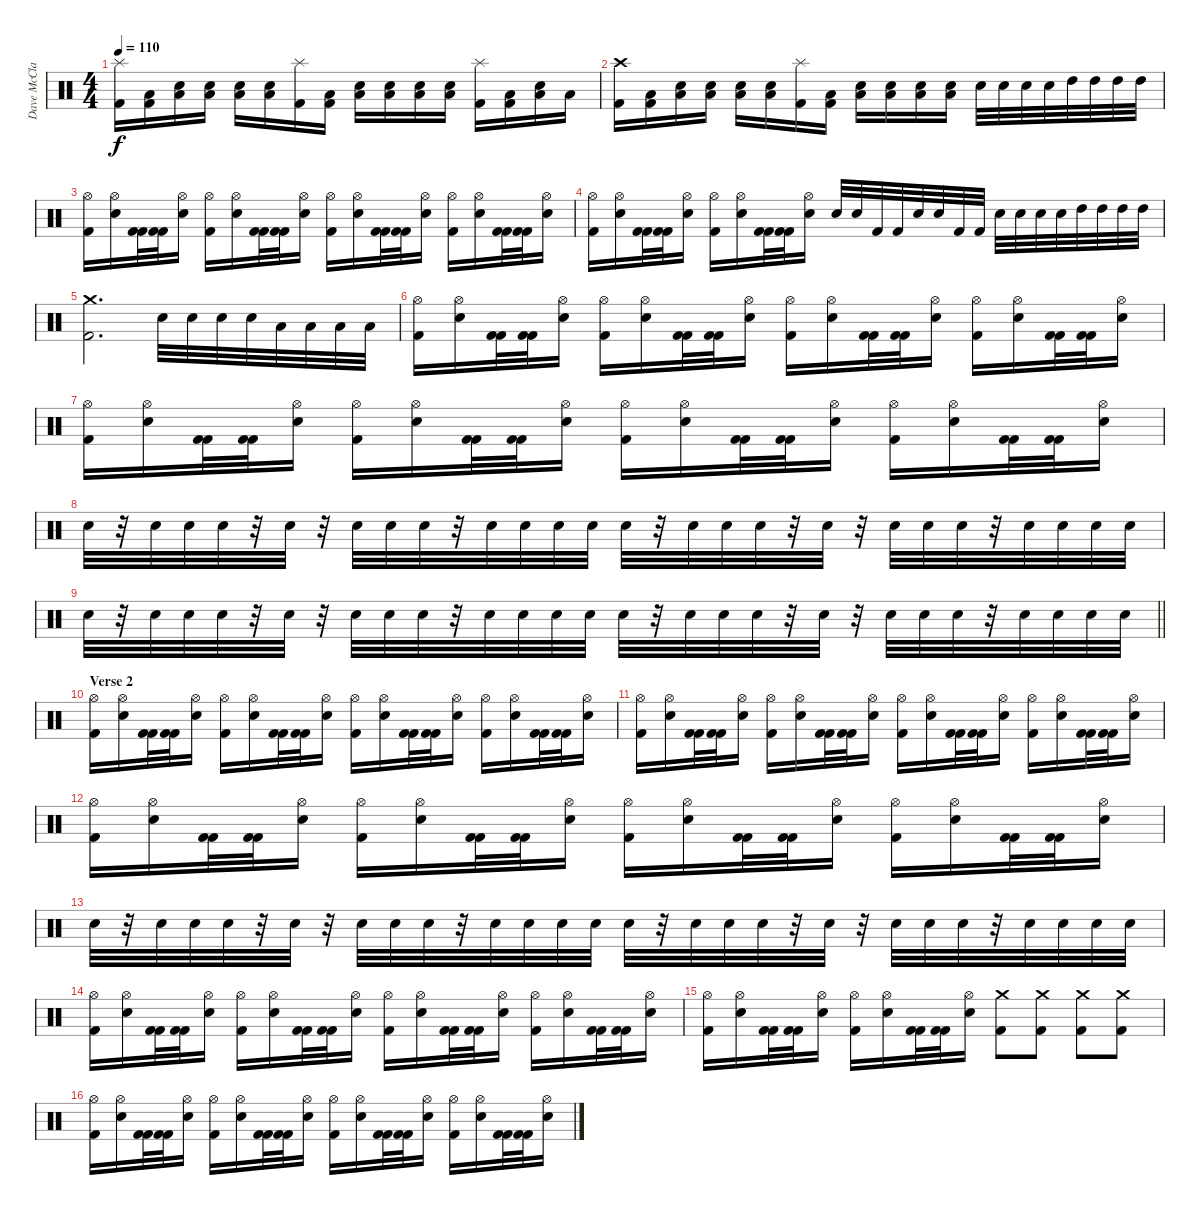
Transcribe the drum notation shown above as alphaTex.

\track ("Dave McClain" "Dave McCla") {instrument percussion}
\staff {score}
\articulation defaults
\ts (4 4)
\tempo 110
\clef neutral
\ks c
("Splash (hit)" "Kick (hit) 2").16{dy f} ("Kick (hit) 2" "Low Tom (hit)").16 ("Electric Snare (hit)" "Low Tom (hit)").16 ("Electric Snare (hit)" "Low Tom (hit)").16 ("Electric Snare (hit)" "Low Tom (hit)").16 ("Low Tom (hit)" "Electric Snare (hit)").16 ("Splash (hit)" "Kick (hit) 2").16 ("Kick (hit) 2" "Low Tom (hit)").16 ("Electric Snare (hit)" "Low Tom (hit)").16 ("Electric Snare (hit)" "Low Tom (hit)").16 ("Electric Snare (hit)" "Low Tom (hit)").16 ("Low Tom (hit)" "Electric Snare (hit)").16 ("Kick (hit) 2" "Splash (hit)").16 ("Low Tom (hit)" "Kick (hit) 2").16 ("Low Tom (hit)" "Electric Snare (hit)").16 "Low Tom (hit)".16 |
("Crash high (hit)" "Kick (hit) 2").16 ("Kick (hit) 2" "Low Tom (hit)").16 ("Electric Snare (hit)" "Low Tom (hit)").16 ("Electric Snare (hit)" "Low Tom (hit)").16 ("Electric Snare (hit)" "Low Tom (hit)").16 ("Low Tom (hit)" "Electric Snare (hit)").16 ("Splash (hit)" "Kick (hit) 2").16 ("Kick (hit) 2" "Low Tom (hit)").16 ("Electric Snare (hit)" "Low Tom (hit)").16 ("Electric Snare (hit)" "Low Tom (hit)").16 ("Electric Snare (hit)" "Low Tom (hit)").16 ("Low Tom (hit)" "Electric Snare (hit)").16 "Electric Snare (hit)".32 "Electric Snare (hit)".32 "Electric Snare (hit)".32 "Electric Snare (hit)".32 "High Tom (hit)".32 "High Tom (hit)".32 "High Tom (hit)".32 "High Tom (hit)".32 |
("Kick (hit) 2" "Hi-Hat (open)").16 ("Electric Snare (hit)" "Hi-Hat (open)").16 ("Kick (hit) 2" "Kick (hit) 2").32 ("Kick (hit) 2" "Kick (hit) 2").32 ("Hi-Hat (open)" "Electric Snare (hit)").16 ("Kick (hit) 2" "Hi-Hat (open)").16 ("Hi-Hat (open)" "Electric Snare (hit)").16 ("Kick (hit) 2" "Kick (hit) 2").32 ("Kick (hit) 2" "Kick (hit) 2").32 ("Electric Snare (hit)" "Hi-Hat (open)").16 ("Kick (hit) 2" "Hi-Hat (open)").16 ("Electric Snare (hit)" "Hi-Hat (open)").16 ("Kick (hit) 2" "Kick (hit) 2").32 ("Kick (hit) 2" "Kick (hit) 2").32 ("Hi-Hat (open)" "Electric Snare (hit)").16 ("Kick (hit) 2" "Hi-Hat (open)").16 ("Hi-Hat (open)" "Electric Snare (hit)").16 ("Kick (hit) 2" "Kick (hit) 2").32 ("Kick (hit) 2" "Kick (hit) 2").32 ("Electric Snare (hit)" "Hi-Hat (open)").16 |
("Kick (hit) 2" "Hi-Hat (open)").16 ("Electric Snare (hit)" "Hi-Hat (open)").16 ("Kick (hit) 2" "Kick (hit) 2").32 ("Kick (hit) 2" "Kick (hit) 2").32 ("Hi-Hat (open)" "Electric Snare (hit)").16 ("Kick (hit) 2" "Hi-Hat (open)").16 ("Hi-Hat (open)" "Electric Snare (hit)").16 ("Kick (hit) 2" "Kick (hit) 2").32 ("Kick (hit) 2" "Kick (hit) 2").32 ("Electric Snare (hit)" "Hi-Hat (open)").16 "Electric Snare (hit)".32 "Electric Snare (hit)".32 "Kick (hit) 2".32 "Kick (hit) 2".32 "Electric Snare (hit)".32 "Electric Snare (hit)".32 "Kick (hit) 2".32 "Kick (hit) 2".32 "Electric Snare (hit)".32 "Electric Snare (hit)".32 "Electric Snare (hit)".32 "Electric Snare (hit)".32 "High Tom (hit)".32 "High Tom (hit)".32 "High Tom (hit)".32 "High Tom (hit)".32 |
("Kick (hit) 2" "Crash medium (hit)").2{d} "Electric Snare (hit)".32 "Electric Snare (hit)".32 "Electric Snare (hit)".32 "Electric Snare (hit)".32 "Low Tom (hit)".32 "Low Tom (hit)".32 "Low Tom (hit)".32 "Low Tom (hit)".32 |
("Kick (hit) 2" "Hi-Hat (open)").16 ("Electric Snare (hit)" "Hi-Hat (open)").16 ("Kick (hit) 2" "Kick (hit) 2").32 ("Kick (hit) 2" "Kick (hit) 2").32 ("Hi-Hat (open)" "Electric Snare (hit)").16 ("Kick (hit) 2" "Hi-Hat (open)").16 ("Hi-Hat (open)" "Electric Snare (hit)").16 ("Kick (hit) 2" "Kick (hit) 2").32 ("Kick (hit) 2" "Kick (hit) 2").32 ("Electric Snare (hit)" "Hi-Hat (open)").16 ("Kick (hit) 2" "Hi-Hat (open)").16 ("Electric Snare (hit)" "Hi-Hat (open)").16 ("Kick (hit) 2" "Kick (hit) 2").32 ("Kick (hit) 2" "Kick (hit) 2").32 ("Hi-Hat (open)" "Electric Snare (hit)").16 ("Kick (hit) 2" "Hi-Hat (open)").16 ("Hi-Hat (open)" "Electric Snare (hit)").16 ("Kick (hit) 2" "Kick (hit) 2").32 ("Kick (hit) 2" "Kick (hit) 2").32 ("Electric Snare (hit)" "Hi-Hat (open)").16 |
("Kick (hit) 2" "Hi-Hat (open)").16 ("Electric Snare (hit)" "Hi-Hat (open)").16 ("Kick (hit) 2" "Kick (hit) 2").32 ("Kick (hit) 2" "Kick (hit) 2").32 ("Hi-Hat (open)" "Electric Snare (hit)").16 ("Kick (hit) 2" "Hi-Hat (open)").16 ("Hi-Hat (open)" "Electric Snare (hit)").16 ("Kick (hit) 2" "Kick (hit) 2").32 ("Kick (hit) 2" "Kick (hit) 2").32 ("Electric Snare (hit)" "Hi-Hat (open)").16 ("Kick (hit) 2" "Hi-Hat (open)").16 ("Electric Snare (hit)" "Hi-Hat (open)").16 ("Kick (hit) 2" "Kick (hit) 2").32 ("Kick (hit) 2" "Kick (hit) 2").32 ("Hi-Hat (open)" "Electric Snare (hit)").16 ("Kick (hit) 2" "Hi-Hat (open)").16 ("Hi-Hat (open)" "Electric Snare (hit)").16 ("Kick (hit) 2" "Kick (hit) 2").32 ("Kick (hit) 2" "Kick (hit) 2").32 ("Electric Snare (hit)" "Hi-Hat (open)").16 |
"Electric Snare (hit)".32 r.32 "Electric Snare (hit)".32 "Electric Snare (hit)".32 "Electric Snare (hit)".32 r.32 "Electric Snare (hit)".32 r.32 "Electric Snare (hit)".32 "Electric Snare (hit)".32 "Electric Snare (hit)".32 r.32 "Electric Snare (hit)".32 "Electric Snare (hit)".32 "Electric Snare (hit)".32 "Electric Snare (hit)".32 "Electric Snare (hit)".32 r.32 "Electric Snare (hit)".32 "Electric Snare (hit)".32 "Electric Snare (hit)".32 r.32 "Electric Snare (hit)".32 r.32 "Electric Snare (hit)".32 "Electric Snare (hit)".32 "Electric Snare (hit)".32 r.32 "Electric Snare (hit)".32 "Electric Snare (hit)".32 "Electric Snare (hit)".32 "Electric Snare (hit)".32 |
\barLineRight lightlight "Electric Snare (hit)".32
r.32 "Electric Snare (hit)".32 "Electric Snare (hit)".32 "Electric Snare (hit)".32 r.32 "Electric Snare (hit)".32 r.32 "Electric Snare (hit)".32 "Electric Snare (hit)".32 "Electric Snare (hit)".32 r.32 "Electric Snare (hit)".32 "Electric Snare (hit)".32 "Electric Snare (hit)".32 "Electric Snare (hit)".32 "Electric Snare (hit)".32 r.32 "Electric Snare (hit)".32 "Electric Snare (hit)".32 "Electric Snare (hit)".32 r.32 "Electric Snare (hit)".32 r.32 "Electric Snare (hit)".32 "Electric Snare (hit)".32 "Electric Snare (hit)".32 r.32 "Electric Snare (hit)".32 "Electric Snare (hit)".32 "Electric Snare (hit)".32 "Electric Snare (hit)".32 |
\section ("" "Verse 2")
("Kick (hit) 2" "Hi-Hat (open)").16 ("Electric Snare (hit)" "Hi-Hat (open)").16 ("Kick (hit) 2" "Kick (hit) 2").32 ("Kick (hit) 2" "Kick (hit) 2").32 ("Hi-Hat (open)" "Electric Snare (hit)").16 ("Kick (hit) 2" "Hi-Hat (open)").16 ("Hi-Hat (open)" "Electric Snare (hit)").16 ("Kick (hit) 2" "Kick (hit) 2").32 ("Kick (hit) 2" "Kick (hit) 2").32 ("Electric Snare (hit)" "Hi-Hat (open)").16 ("Kick (hit) 2" "Hi-Hat (open)").16 ("Electric Snare (hit)" "Hi-Hat (open)").16 ("Kick (hit) 2" "Kick (hit) 2").32 ("Kick (hit) 2" "Kick (hit) 2").32 ("Hi-Hat (open)" "Electric Snare (hit)").16 ("Kick (hit) 2" "Hi-Hat (open)").16 ("Hi-Hat (open)" "Electric Snare (hit)").16 ("Kick (hit) 2" "Kick (hit) 2").32 ("Kick (hit) 2" "Kick (hit) 2").32 ("Electric Snare (hit)" "Hi-Hat (open)").16 |
("Kick (hit) 2" "Hi-Hat (open)").16 ("Electric Snare (hit)" "Hi-Hat (open)").16 ("Kick (hit) 2" "Kick (hit) 2").32 ("Kick (hit) 2" "Kick (hit) 2").32 ("Hi-Hat (open)" "Electric Snare (hit)").16 ("Kick (hit) 2" "Hi-Hat (open)").16 ("Hi-Hat (open)" "Electric Snare (hit)").16 ("Kick (hit) 2" "Kick (hit) 2").32 ("Kick (hit) 2" "Kick (hit) 2").32 ("Electric Snare (hit)" "Hi-Hat (open)").16 ("Kick (hit) 2" "Hi-Hat (open)").16 ("Electric Snare (hit)" "Hi-Hat (open)").16 ("Kick (hit) 2" "Kick (hit) 2").32 ("Kick (hit) 2" "Kick (hit) 2").32 ("Hi-Hat (open)" "Electric Snare (hit)").16 ("Kick (hit) 2" "Hi-Hat (open)").16 ("Hi-Hat (open)" "Electric Snare (hit)").16 ("Kick (hit) 2" "Kick (hit) 2").32 ("Kick (hit) 2" "Kick (hit) 2").32 ("Electric Snare (hit)" "Hi-Hat (open)").16 |
("Kick (hit) 2" "Hi-Hat (open)").16 ("Electric Snare (hit)" "Hi-Hat (open)").16 ("Kick (hit) 2" "Kick (hit) 2").32 ("Kick (hit) 2" "Kick (hit) 2").32 ("Hi-Hat (open)" "Electric Snare (hit)").16 ("Kick (hit) 2" "Hi-Hat (open)").16 ("Hi-Hat (open)" "Electric Snare (hit)").16 ("Kick (hit) 2" "Kick (hit) 2").32 ("Kick (hit) 2" "Kick (hit) 2").32 ("Electric Snare (hit)" "Hi-Hat (open)").16 ("Kick (hit) 2" "Hi-Hat (open)").16 ("Electric Snare (hit)" "Hi-Hat (open)").16 ("Kick (hit) 2" "Kick (hit) 2").32 ("Kick (hit) 2" "Kick (hit) 2").32 ("Hi-Hat (open)" "Electric Snare (hit)").16 ("Kick (hit) 2" "Hi-Hat (open)").16 ("Hi-Hat (open)" "Electric Snare (hit)").16 ("Kick (hit) 2" "Kick (hit) 2").32 ("Kick (hit) 2" "Kick (hit) 2").32 ("Electric Snare (hit)" "Hi-Hat (open)").16 |
"Electric Snare (hit)".32 r.32 "Electric Snare (hit)".32 "Electric Snare (hit)".32 "Electric Snare (hit)".32 r.32 "Electric Snare (hit)".32 r.32 "Electric Snare (hit)".32 "Electric Snare (hit)".32 "Electric Snare (hit)".32 r.32 "Electric Snare (hit)".32 "Electric Snare (hit)".32 "Electric Snare (hit)".32 "Electric Snare (hit)".32 "Electric Snare (hit)".32 r.32 "Electric Snare (hit)".32 "Electric Snare (hit)".32 "Electric Snare (hit)".32 r.32 "Electric Snare (hit)".32 r.32 "Electric Snare (hit)".32 "Electric Snare (hit)".32 "Electric Snare (hit)".32 r.32 "Electric Snare (hit)".32 "Electric Snare (hit)".32 "Electric Snare (hit)".32 "Electric Snare (hit)".32 |
("Kick (hit) 2" "Hi-Hat (open)").16 ("Electric Snare (hit)" "Hi-Hat (open)").16 ("Kick (hit) 2" "Kick (hit) 2").32 ("Kick (hit) 2" "Kick (hit) 2").32 ("Hi-Hat (open)" "Electric Snare (hit)").16 ("Kick (hit) 2" "Hi-Hat (open)").16 ("Hi-Hat (open)" "Electric Snare (hit)").16 ("Kick (hit) 2" "Kick (hit) 2").32 ("Kick (hit) 2" "Kick (hit) 2").32 ("Electric Snare (hit)" "Hi-Hat (open)").16 ("Kick (hit) 2" "Hi-Hat (open)").16 ("Electric Snare (hit)" "Hi-Hat (open)").16 ("Kick (hit) 2" "Kick (hit) 2").32 ("Kick (hit) 2" "Kick (hit) 2").32 ("Hi-Hat (open)" "Electric Snare (hit)").16 ("Kick (hit) 2" "Hi-Hat (open)").16 ("Hi-Hat (open)" "Electric Snare (hit)").16 ("Kick (hit) 2" "Kick (hit) 2").32 ("Kick (hit) 2" "Kick (hit) 2").32 ("Electric Snare (hit)" "Hi-Hat (open)").16 |
("Kick (hit) 2" "Hi-Hat (open)").16 ("Electric Snare (hit)" "Hi-Hat (open)").16 ("Kick (hit) 2" "Kick (hit) 2").32 ("Kick (hit) 2" "Kick (hit) 2").32 ("Hi-Hat (open)" "Electric Snare (hit)").16 ("Kick (hit) 2" "Hi-Hat (open)").16 ("Hi-Hat (open)" "Electric Snare (hit)").16 ("Kick (hit) 2" "Kick (hit) 2").32 ("Kick (hit) 2" "Kick (hit) 2").32 ("Electric Snare (hit)" "Hi-Hat (open)").16 ("Kick (hit) 2" "Crash medium (hit)").8 ("Crash medium (hit)" "Kick (hit) 2").8 ("Kick (hit) 2" "Crash medium (hit)").8 ("Crash medium (hit)" "Kick (hit) 2").8 |
("Kick (hit) 2" "Hi-Hat (open)").16 ("Electric Snare (hit)" "Hi-Hat (open)").16 ("Kick (hit) 2" "Kick (hit) 2").32 ("Kick (hit) 2" "Kick (hit) 2").32 ("Hi-Hat (open)" "Electric Snare (hit)").16 ("Kick (hit) 2" "Hi-Hat (open)").16 ("Hi-Hat (open)" "Electric Snare (hit)").16 ("Kick (hit) 2" "Kick (hit) 2").32 ("Kick (hit) 2" "Kick (hit) 2").32 ("Electric Snare (hit)" "Hi-Hat (open)").16 ("Kick (hit) 2" "Hi-Hat (open)").16 ("Electric Snare (hit)" "Hi-Hat (open)").16 ("Kick (hit) 2" "Kick (hit) 2").32 ("Kick (hit) 2" "Kick (hit) 2").32 ("Hi-Hat (open)" "Electric Snare (hit)").16 ("Kick (hit) 2" "Hi-Hat (open)").16 ("Hi-Hat (open)" "Electric Snare (hit)").16 ("Kick (hit) 2" "Kick (hit) 2").32 ("Kick (hit) 2" "Kick (hit) 2").32 ("Electric Snare (hit)" "Hi-Hat (open)").16
